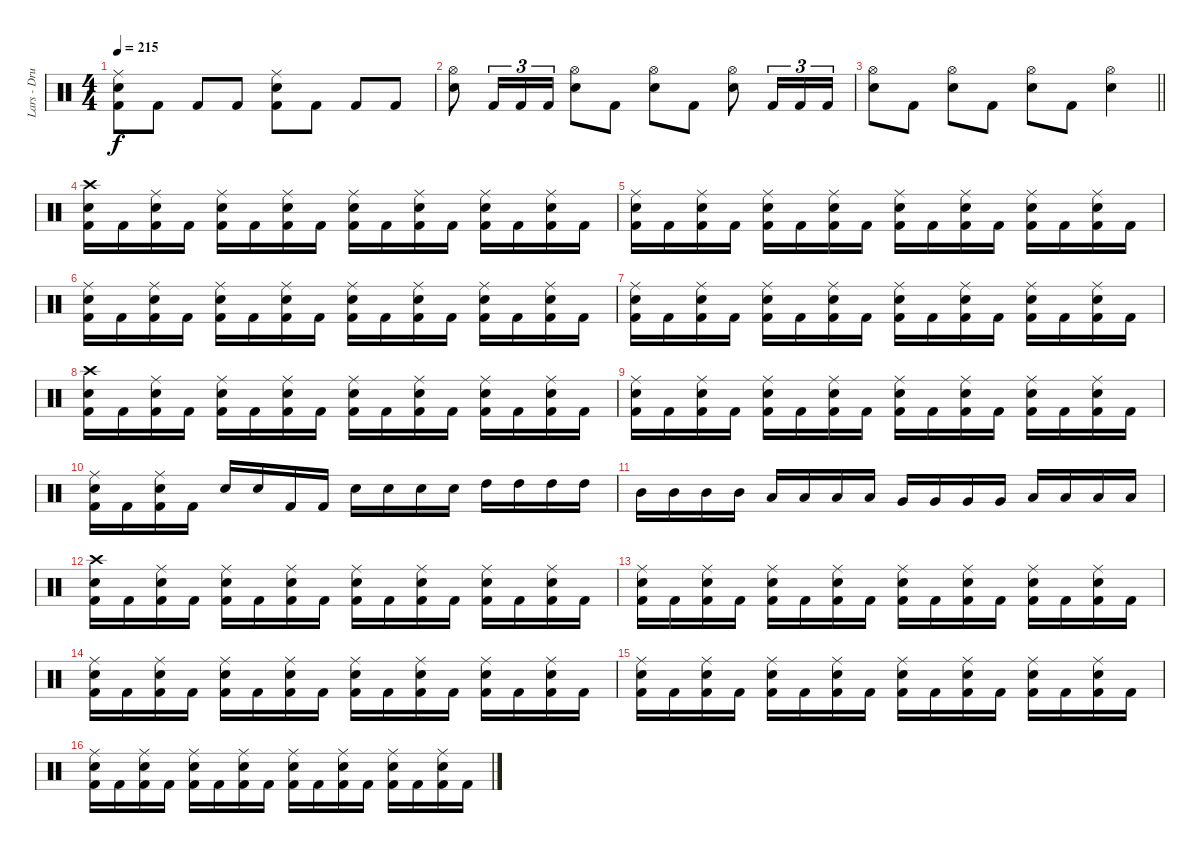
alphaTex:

\track ("Lars - Drums" "Lars - Dru") {instrument percussion}
\staff {score}
\articulation defaults
\ts (4 4)
\tempo 215
\clef neutral
\ks c
("Kick (hit) 2" "Electric Snare (hit)" "Ride (middle)").8{dy f} "Kick (hit) 2".8 "Kick (hit) 2".8 "Kick (hit) 2".8 ("Kick (hit) 2" "Electric Snare (hit)" "Ride (middle)").8 "Kick (hit) 2".8 "Kick (hit) 2".8 "Kick (hit) 2".8 |
("Electric Snare (hit)" "Hi-Hat (open)").8 "Kick (hit) 2".16{tu (3 2)} "Kick (hit) 2".16{tu (3 2)} "Kick (hit) 2".16{tu (3 2)} ("Electric Snare (hit)" "Hi-Hat (open)").8 "Kick (hit) 2".8 ("Electric Snare (hit)" "Hi-Hat (open)").8 "Kick (hit) 2".8 ("Electric Snare (hit)" "Hi-Hat (open)").8 "Kick (hit) 2".16{tu (3 2)} "Kick (hit) 2".16{tu (3 2)} "Kick (hit) 2".16{tu (3 2)} |
\barLineRight lightlight
("Electric Snare (hit)" "Hi-Hat (open)").8 "Kick (hit) 2".8 ("Electric Snare (hit)" "Hi-Hat (open)").8 "Kick (hit) 2".8 ("Electric Snare (hit)" "Hi-Hat (open)").8 "Kick (hit) 2".8 ("Electric Snare (hit)" "Hi-Hat (open)").4 |
\section ("" "")
("Kick (hit) 2" "Electric Snare (hit)" "Crash high (hit)").16 "Kick (hit) 2".16 ("Kick (hit) 2" "Electric Snare (hit)" "Ride (middle)").16 "Kick (hit) 2".16 ("Kick (hit) 2" "Electric Snare (hit)" "Ride (middle)").16 "Kick (hit) 2".16 ("Kick (hit) 2" "Electric Snare (hit)" "Ride (middle)").16 "Kick (hit) 2".16 ("Kick (hit) 2" "Electric Snare (hit)" "Ride (middle)").16 "Kick (hit) 2".16 ("Kick (hit) 2" "Electric Snare (hit)" "Ride (middle)").16 "Kick (hit) 2".16 ("Kick (hit) 2" "Electric Snare (hit)" "Ride (middle)").16 "Kick (hit) 2".16 ("Kick (hit) 2" "Electric Snare (hit)" "Ride (middle)").16 "Kick (hit) 2".16 |
("Kick (hit) 2" "Electric Snare (hit)" "Ride (middle)").16 "Kick (hit) 2".16 ("Kick (hit) 2" "Electric Snare (hit)" "Ride (middle)").16 "Kick (hit) 2".16 ("Kick (hit) 2" "Electric Snare (hit)" "Ride (middle)").16 "Kick (hit) 2".16 ("Kick (hit) 2" "Electric Snare (hit)" "Ride (middle)").16 "Kick (hit) 2".16 ("Kick (hit) 2" "Electric Snare (hit)" "Ride (middle)").16 "Kick (hit) 2".16 ("Kick (hit) 2" "Electric Snare (hit)" "Ride (middle)").16 "Kick (hit) 2".16 ("Kick (hit) 2" "Electric Snare (hit)" "Ride (middle)").16 "Kick (hit) 2".16 ("Kick (hit) 2" "Electric Snare (hit)" "Ride (middle)").16 "Kick (hit) 2".16 |
("Kick (hit) 2" "Electric Snare (hit)" "Ride (middle)").16 "Kick (hit) 2".16 ("Kick (hit) 2" "Electric Snare (hit)" "Ride (middle)").16 "Kick (hit) 2".16 ("Kick (hit) 2" "Electric Snare (hit)" "Ride (middle)").16 "Kick (hit) 2".16 ("Kick (hit) 2" "Electric Snare (hit)" "Ride (middle)").16 "Kick (hit) 2".16 ("Kick (hit) 2" "Electric Snare (hit)" "Ride (middle)").16 "Kick (hit) 2".16 ("Kick (hit) 2" "Electric Snare (hit)" "Ride (middle)").16 "Kick (hit) 2".16 ("Kick (hit) 2" "Electric Snare (hit)" "Ride (middle)").16 "Kick (hit) 2".16 ("Kick (hit) 2" "Electric Snare (hit)" "Ride (middle)").16 "Kick (hit) 2".16 |
("Kick (hit) 2" "Electric Snare (hit)" "Ride (middle)").16 "Kick (hit) 2".16 ("Kick (hit) 2" "Electric Snare (hit)" "Ride (middle)").16 "Kick (hit) 2".16 ("Kick (hit) 2" "Electric Snare (hit)" "Ride (middle)").16 "Kick (hit) 2".16 ("Kick (hit) 2" "Electric Snare (hit)" "Ride (middle)").16 "Kick (hit) 2".16 ("Kick (hit) 2" "Electric Snare (hit)" "Ride (middle)").16 "Kick (hit) 2".16 ("Kick (hit) 2" "Electric Snare (hit)" "Ride (middle)").16 "Kick (hit) 2".16 ("Kick (hit) 2" "Electric Snare (hit)" "Ride (middle)").16 "Kick (hit) 2".16 ("Kick (hit) 2" "Electric Snare (hit)" "Ride (middle)").16 "Kick (hit) 2".16 |
("Kick (hit) 2" "Electric Snare (hit)" "Crash high (hit)").16 "Kick (hit) 2".16 ("Kick (hit) 2" "Electric Snare (hit)" "Ride (middle)").16 "Kick (hit) 2".16 ("Kick (hit) 2" "Electric Snare (hit)" "Ride (middle)").16 "Kick (hit) 2".16 ("Kick (hit) 2" "Electric Snare (hit)" "Ride (middle)").16 "Kick (hit) 2".16 ("Kick (hit) 2" "Electric Snare (hit)" "Ride (middle)").16 "Kick (hit) 2".16 ("Kick (hit) 2" "Electric Snare (hit)" "Ride (middle)").16 "Kick (hit) 2".16 ("Kick (hit) 2" "Electric Snare (hit)" "Ride (middle)").16 "Kick (hit) 2".16 ("Kick (hit) 2" "Electric Snare (hit)" "Ride (middle)").16 "Kick (hit) 2".16 |
("Kick (hit) 2" "Electric Snare (hit)" "Ride (middle)").16 "Kick (hit) 2".16 ("Kick (hit) 2" "Electric Snare (hit)" "Ride (middle)").16 "Kick (hit) 2".16 ("Kick (hit) 2" "Electric Snare (hit)" "Ride (middle)").16 "Kick (hit) 2".16 ("Kick (hit) 2" "Electric Snare (hit)" "Ride (middle)").16 "Kick (hit) 2".16 ("Kick (hit) 2" "Electric Snare (hit)" "Ride (middle)").16 "Kick (hit) 2".16 ("Kick (hit) 2" "Electric Snare (hit)" "Ride (middle)").16 "Kick (hit) 2".16 ("Kick (hit) 2" "Electric Snare (hit)" "Ride (middle)").16 "Kick (hit) 2".16 ("Kick (hit) 2" "Electric Snare (hit)" "Ride (middle)").16 "Kick (hit) 2".16 |
("Kick (hit) 2" "Electric Snare (hit)" "Ride (middle)").16 "Kick (hit) 2".16 ("Kick (hit) 2" "Electric Snare (hit)" "Ride (middle)").16 "Kick (hit) 2".16 "Electric Snare (hit)".16 "Electric Snare (hit)".16 "Kick (hit) 2".16 "Kick (hit) 2".16 "Electric Snare (hit)".16 "Electric Snare (hit)".16 "Electric Snare (hit)".16 "Electric Snare (hit)".16 "High Tom (hit)".16 "High Tom (hit)".16 "High Tom (hit)".16 "High Tom (hit)".16 |
"Mid Tom (hit)".16 "Mid Tom (hit)".16 "Mid Tom (hit)".16 "Mid Tom (hit)".16 "Low Tom (hit)".16 "Low Tom (hit)".16 "Low Tom (hit)".16 "Low Tom (hit)".16 "Very Low Tom (hit)".16 "Very Low Tom (hit)".16 "Very Low Tom (hit)".16 "Very Low Tom (hit)".16 "Low Floor Tom (hit)".16 "Low Floor Tom (hit)".16 "Low Floor Tom (hit)".16 "Low Floor Tom (hit)".16 |
("Kick (hit) 2" "Electric Snare (hit)" "Crash high (hit)").16 "Kick (hit) 2".16 ("Kick (hit) 2" "Electric Snare (hit)" "Ride (middle)").16 "Kick (hit) 2".16 ("Kick (hit) 2" "Electric Snare (hit)" "Ride (middle)").16 "Kick (hit) 2".16 ("Kick (hit) 2" "Electric Snare (hit)" "Ride (middle)").16 "Kick (hit) 2".16 ("Kick (hit) 2" "Electric Snare (hit)" "Ride (middle)").16 "Kick (hit) 2".16 ("Kick (hit) 2" "Electric Snare (hit)" "Ride (middle)").16 "Kick (hit) 2".16 ("Kick (hit) 2" "Electric Snare (hit)" "Ride (middle)").16 "Kick (hit) 2".16 ("Kick (hit) 2" "Electric Snare (hit)" "Ride (middle)").16 "Kick (hit) 2".16 |
("Kick (hit) 2" "Electric Snare (hit)" "Ride (middle)").16 "Kick (hit) 2".16 ("Kick (hit) 2" "Electric Snare (hit)" "Ride (middle)").16 "Kick (hit) 2".16 ("Kick (hit) 2" "Electric Snare (hit)" "Ride (middle)").16 "Kick (hit) 2".16 ("Kick (hit) 2" "Electric Snare (hit)" "Ride (middle)").16 "Kick (hit) 2".16 ("Kick (hit) 2" "Electric Snare (hit)" "Ride (middle)").16 "Kick (hit) 2".16 ("Kick (hit) 2" "Electric Snare (hit)" "Ride (middle)").16 "Kick (hit) 2".16 ("Kick (hit) 2" "Electric Snare (hit)" "Ride (middle)").16 "Kick (hit) 2".16 ("Kick (hit) 2" "Electric Snare (hit)" "Ride (middle)").16 "Kick (hit) 2".16 |
("Kick (hit) 2" "Electric Snare (hit)" "Ride (middle)").16 "Kick (hit) 2".16 ("Kick (hit) 2" "Electric Snare (hit)" "Ride (middle)").16 "Kick (hit) 2".16 ("Kick (hit) 2" "Electric Snare (hit)" "Ride (middle)").16 "Kick (hit) 2".16 ("Kick (hit) 2" "Electric Snare (hit)" "Ride (middle)").16 "Kick (hit) 2".16 ("Kick (hit) 2" "Electric Snare (hit)" "Ride (middle)").16 "Kick (hit) 2".16 ("Kick (hit) 2" "Electric Snare (hit)" "Ride (middle)").16 "Kick (hit) 2".16 ("Kick (hit) 2" "Electric Snare (hit)" "Ride (middle)").16 "Kick (hit) 2".16 ("Kick (hit) 2" "Electric Snare (hit)" "Ride (middle)").16 "Kick (hit) 2".16 |
("Kick (hit) 2" "Electric Snare (hit)" "Ride (middle)").16 "Kick (hit) 2".16 ("Kick (hit) 2" "Electric Snare (hit)" "Ride (middle)").16 "Kick (hit) 2".16 ("Kick (hit) 2" "Electric Snare (hit)" "Ride (middle)").16 "Kick (hit) 2".16 ("Kick (hit) 2" "Electric Snare (hit)" "Ride (middle)").16 "Kick (hit) 2".16 ("Kick (hit) 2" "Electric Snare (hit)" "Ride (middle)").16 "Kick (hit) 2".16 ("Kick (hit) 2" "Electric Snare (hit)" "Ride (middle)").16 "Kick (hit) 2".16 ("Kick (hit) 2" "Electric Snare (hit)" "Ride (middle)").16 "Kick (hit) 2".16 ("Kick (hit) 2" "Electric Snare (hit)" "Ride (middle)").16 "Kick (hit) 2".16 |
("Kick (hit) 2" "Electric Snare (hit)" "Ride (middle)").16 "Kick (hit) 2".16 ("Kick (hit) 2" "Electric Snare (hit)" "Ride (middle)").16 "Kick (hit) 2".16 ("Kick (hit) 2" "Electric Snare (hit)" "Ride (middle)").16 "Kick (hit) 2".16 ("Kick (hit) 2" "Electric Snare (hit)" "Ride (middle)").16 "Kick (hit) 2".16 ("Kick (hit) 2" "Electric Snare (hit)" "Ride (middle)").16 "Kick (hit) 2".16 ("Kick (hit) 2" "Electric Snare (hit)" "Ride (middle)").16 "Kick (hit) 2".16 ("Kick (hit) 2" "Electric Snare (hit)" "Ride (middle)").16 "Kick (hit) 2".16 ("Kick (hit) 2" "Electric Snare (hit)" "Ride (middle)").16 "Kick (hit) 2".16
